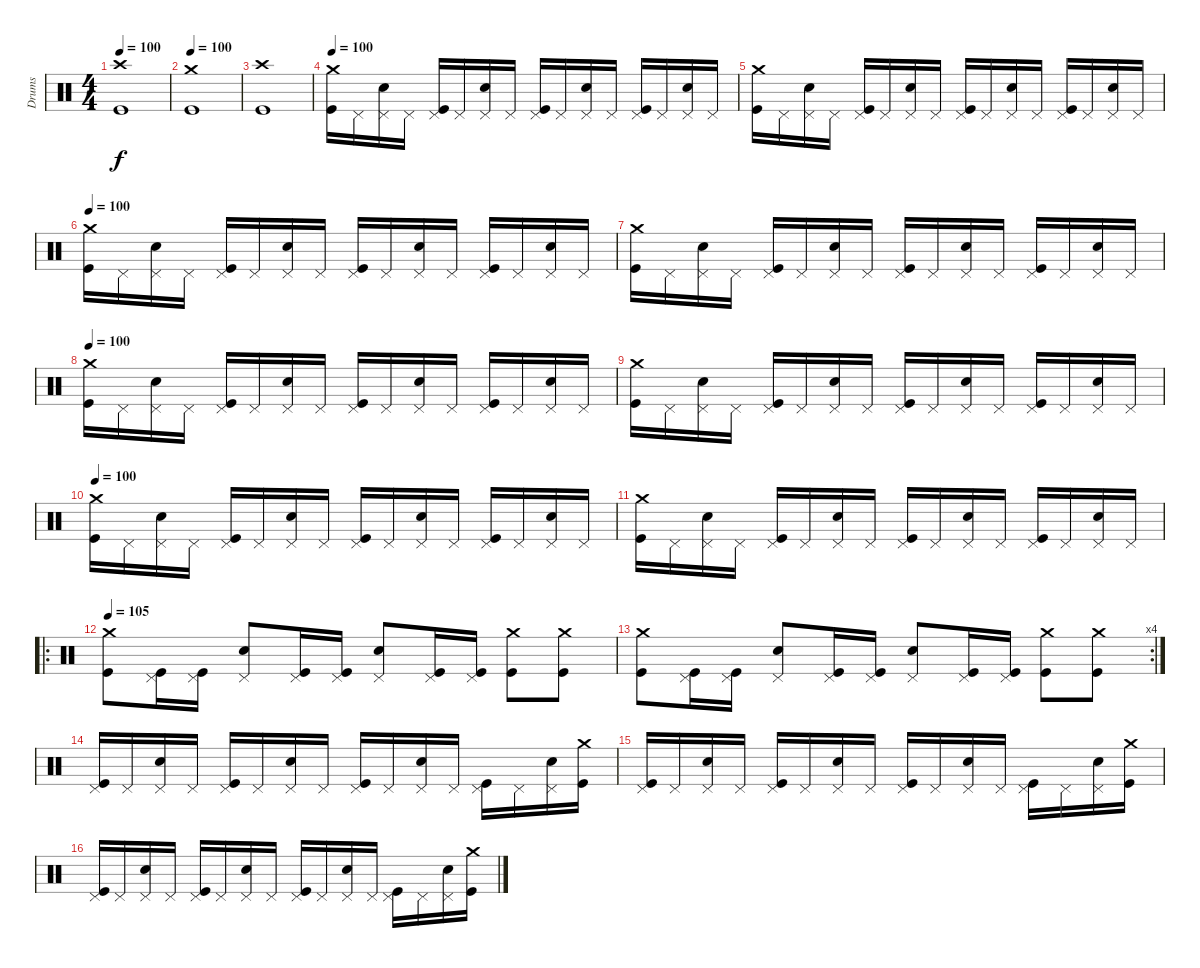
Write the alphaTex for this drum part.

\track ("Drums" "Drums") {instrument percussion}
\staff {score}
\articulation defaults
\ts (4 4)
\tempo 100
\clef neutral
\ks c
("Kick (hit)" "Crash high (hit)").1{dy f} |
\tempo 100
("Kick (hit)" "Crash medium (hit)").1 |
("Kick (hit)" "Crash high (hit)").1 |
\tempo 100
("Kick (hit)" "Crash medium (hit)").16 "Pedal Hi-Hat (hit)".16 ("Snare (hit) 2" "Pedal Hi-Hat (hit)").16 "Pedal Hi-Hat (hit)".16 ("Kick (hit)" "Pedal Hi-Hat (hit)").16 "Pedal Hi-Hat (hit)".16 ("Snare (hit) 2" "Pedal Hi-Hat (hit)").16 "Pedal Hi-Hat (hit)".16 ("Kick (hit)" "Pedal Hi-Hat (hit)").16 "Pedal Hi-Hat (hit)".16 ("Snare (hit) 2" "Pedal Hi-Hat (hit)").16 "Pedal Hi-Hat (hit)".16 ("Kick (hit)" "Pedal Hi-Hat (hit)").16 "Pedal Hi-Hat (hit)".16 ("Snare (hit) 2" "Pedal Hi-Hat (hit)").16 "Pedal Hi-Hat (hit)".16 |
("Kick (hit)" "Crash medium (hit)").16 "Pedal Hi-Hat (hit)".16 ("Snare (hit) 2" "Pedal Hi-Hat (hit)").16 "Pedal Hi-Hat (hit)".16 ("Kick (hit)" "Pedal Hi-Hat (hit)").16 "Pedal Hi-Hat (hit)".16 ("Snare (hit) 2" "Pedal Hi-Hat (hit)").16 "Pedal Hi-Hat (hit)".16 ("Kick (hit)" "Pedal Hi-Hat (hit)").16 "Pedal Hi-Hat (hit)".16 ("Snare (hit) 2" "Pedal Hi-Hat (hit)").16 "Pedal Hi-Hat (hit)".16 ("Kick (hit)" "Pedal Hi-Hat (hit)").16 "Pedal Hi-Hat (hit)".16 ("Snare (hit) 2" "Pedal Hi-Hat (hit)").16 "Pedal Hi-Hat (hit)".16 |
\tempo 100
("Kick (hit)" "Crash medium (hit)").16 "Pedal Hi-Hat (hit)".16 ("Snare (hit) 2" "Pedal Hi-Hat (hit)").16 "Pedal Hi-Hat (hit)".16 ("Kick (hit)" "Pedal Hi-Hat (hit)").16 "Pedal Hi-Hat (hit)".16 ("Snare (hit) 2" "Pedal Hi-Hat (hit)").16 "Pedal Hi-Hat (hit)".16 ("Kick (hit)" "Pedal Hi-Hat (hit)").16 "Pedal Hi-Hat (hit)".16 ("Snare (hit) 2" "Pedal Hi-Hat (hit)").16 "Pedal Hi-Hat (hit)".16 ("Kick (hit)" "Pedal Hi-Hat (hit)").16 "Pedal Hi-Hat (hit)".16 ("Snare (hit) 2" "Pedal Hi-Hat (hit)").16 "Pedal Hi-Hat (hit)".16 |
("Kick (hit)" "Crash medium (hit)").16 "Pedal Hi-Hat (hit)".16 ("Snare (hit) 2" "Pedal Hi-Hat (hit)").16 "Pedal Hi-Hat (hit)".16 ("Kick (hit)" "Pedal Hi-Hat (hit)").16 "Pedal Hi-Hat (hit)".16 ("Snare (hit) 2" "Pedal Hi-Hat (hit)").16 "Pedal Hi-Hat (hit)".16 ("Kick (hit)" "Pedal Hi-Hat (hit)").16 "Pedal Hi-Hat (hit)".16 ("Snare (hit) 2" "Pedal Hi-Hat (hit)").16 "Pedal Hi-Hat (hit)".16 ("Kick (hit)" "Pedal Hi-Hat (hit)").16 "Pedal Hi-Hat (hit)".16 ("Snare (hit) 2" "Pedal Hi-Hat (hit)").16 "Pedal Hi-Hat (hit)".16 |
\tempo 100
("Kick (hit)" "Crash medium (hit)").16 "Pedal Hi-Hat (hit)".16 ("Snare (hit) 2" "Pedal Hi-Hat (hit)").16 "Pedal Hi-Hat (hit)".16 ("Kick (hit)" "Pedal Hi-Hat (hit)").16 "Pedal Hi-Hat (hit)".16 ("Snare (hit) 2" "Pedal Hi-Hat (hit)").16 "Pedal Hi-Hat (hit)".16 ("Kick (hit)" "Pedal Hi-Hat (hit)").16 "Pedal Hi-Hat (hit)".16 ("Snare (hit) 2" "Pedal Hi-Hat (hit)").16 "Pedal Hi-Hat (hit)".16 ("Kick (hit)" "Pedal Hi-Hat (hit)").16 "Pedal Hi-Hat (hit)".16 ("Snare (hit) 2" "Pedal Hi-Hat (hit)").16 "Pedal Hi-Hat (hit)".16 |
("Kick (hit)" "Crash medium (hit)").16 "Pedal Hi-Hat (hit)".16 ("Snare (hit) 2" "Pedal Hi-Hat (hit)").16 "Pedal Hi-Hat (hit)".16 ("Kick (hit)" "Pedal Hi-Hat (hit)").16 "Pedal Hi-Hat (hit)".16 ("Snare (hit) 2" "Pedal Hi-Hat (hit)").16 "Pedal Hi-Hat (hit)".16 ("Kick (hit)" "Pedal Hi-Hat (hit)").16 "Pedal Hi-Hat (hit)".16 ("Snare (hit) 2" "Pedal Hi-Hat (hit)").16 "Pedal Hi-Hat (hit)".16 ("Kick (hit)" "Pedal Hi-Hat (hit)").16 "Pedal Hi-Hat (hit)".16 ("Snare (hit) 2" "Pedal Hi-Hat (hit)").16 "Pedal Hi-Hat (hit)".16 |
\tempo 100
("Kick (hit)" "Crash medium (hit)").16 "Pedal Hi-Hat (hit)".16 ("Snare (hit) 2" "Pedal Hi-Hat (hit)").16 "Pedal Hi-Hat (hit)".16 ("Kick (hit)" "Pedal Hi-Hat (hit)").16 "Pedal Hi-Hat (hit)".16 ("Snare (hit) 2" "Pedal Hi-Hat (hit)").16 "Pedal Hi-Hat (hit)".16 ("Kick (hit)" "Pedal Hi-Hat (hit)").16 "Pedal Hi-Hat (hit)".16 ("Snare (hit) 2" "Pedal Hi-Hat (hit)").16 "Pedal Hi-Hat (hit)".16 ("Kick (hit)" "Pedal Hi-Hat (hit)").16 "Pedal Hi-Hat (hit)".16 ("Snare (hit) 2" "Pedal Hi-Hat (hit)").16 "Pedal Hi-Hat (hit)".16 |
("Kick (hit)" "Crash medium (hit)").16 "Pedal Hi-Hat (hit)".16 ("Snare (hit) 2" "Pedal Hi-Hat (hit)").16 "Pedal Hi-Hat (hit)".16 ("Kick (hit)" "Pedal Hi-Hat (hit)").16 "Pedal Hi-Hat (hit)".16 ("Snare (hit) 2" "Pedal Hi-Hat (hit)").16 "Pedal Hi-Hat (hit)".16 ("Kick (hit)" "Pedal Hi-Hat (hit)").16 "Pedal Hi-Hat (hit)".16 ("Snare (hit) 2" "Pedal Hi-Hat (hit)").16 "Pedal Hi-Hat (hit)".16 ("Kick (hit)" "Pedal Hi-Hat (hit)").16 "Pedal Hi-Hat (hit)".16 ("Snare (hit) 2" "Pedal Hi-Hat (hit)").16 "Pedal Hi-Hat (hit)".16 |
\ro
\tempo 105
("Kick (hit)" "Crash medium (hit)").8 ("Kick (hit)" "Pedal Hi-Hat (hit)").16 ("Kick (hit)" "Pedal Hi-Hat (hit)").16 ("Snare (hit) 2" "Pedal Hi-Hat (hit)").8 ("Kick (hit)" "Pedal Hi-Hat (hit)").16 ("Kick (hit)" "Pedal Hi-Hat (hit)").16 ("Snare (hit) 2" "Pedal Hi-Hat (hit)").8 ("Kick (hit)" "Pedal Hi-Hat (hit)").16 ("Kick (hit)" "Pedal Hi-Hat (hit)").16 ("Kick (hit)" "Crash medium (hit)").8 ("Kick (hit)" "Crash medium (hit)").8 |
\rc 4
("Kick (hit)" "Crash medium (hit)").8 ("Kick (hit)" "Pedal Hi-Hat (hit)").16 ("Kick (hit)" "Pedal Hi-Hat (hit)").16 ("Snare (hit) 2" "Pedal Hi-Hat (hit)").8 ("Kick (hit)" "Pedal Hi-Hat (hit)").16 ("Kick (hit)" "Pedal Hi-Hat (hit)").16 ("Snare (hit) 2" "Pedal Hi-Hat (hit)").8 ("Kick (hit)" "Pedal Hi-Hat (hit)").16 ("Kick (hit)" "Pedal Hi-Hat (hit)").16 ("Kick (hit)" "Crash medium (hit)").8 ("Kick (hit)" "Crash medium (hit)").8 |
("Kick (hit)" "Pedal Hi-Hat (hit)").16 "Pedal Hi-Hat (hit)".16 ("Snare (hit) 2" "Pedal Hi-Hat (hit)").16 "Pedal Hi-Hat (hit)".16 ("Kick (hit)" "Pedal Hi-Hat (hit)").16 "Pedal Hi-Hat (hit)".16 ("Snare (hit) 2" "Pedal Hi-Hat (hit)").16 "Pedal Hi-Hat (hit)".16 ("Kick (hit)" "Pedal Hi-Hat (hit)").16 "Pedal Hi-Hat (hit)".16 ("Snare (hit) 2" "Pedal Hi-Hat (hit)").16 "Pedal Hi-Hat (hit)".16 ("Kick (hit)" "Pedal Hi-Hat (hit)").16 "Pedal Hi-Hat (hit)".16 ("Snare (hit) 2" "Pedal Hi-Hat (hit)").16 ("Kick (hit)" "Crash medium (hit)").16 |
("Kick (hit)" "Pedal Hi-Hat (hit)").16 "Pedal Hi-Hat (hit)".16 ("Snare (hit) 2" "Pedal Hi-Hat (hit)").16 "Pedal Hi-Hat (hit)".16 ("Kick (hit)" "Pedal Hi-Hat (hit)").16 "Pedal Hi-Hat (hit)".16 ("Snare (hit) 2" "Pedal Hi-Hat (hit)").16 "Pedal Hi-Hat (hit)".16 ("Kick (hit)" "Pedal Hi-Hat (hit)").16 "Pedal Hi-Hat (hit)".16 ("Snare (hit) 2" "Pedal Hi-Hat (hit)").16 "Pedal Hi-Hat (hit)".16 ("Kick (hit)" "Pedal Hi-Hat (hit)").16 "Pedal Hi-Hat (hit)".16 ("Snare (hit) 2" "Pedal Hi-Hat (hit)").16 ("Kick (hit)" "Crash medium (hit)").16 |
("Kick (hit)" "Pedal Hi-Hat (hit)").16 "Pedal Hi-Hat (hit)".16 ("Snare (hit) 2" "Pedal Hi-Hat (hit)").16 "Pedal Hi-Hat (hit)".16 ("Kick (hit)" "Pedal Hi-Hat (hit)").16 "Pedal Hi-Hat (hit)".16 ("Snare (hit) 2" "Pedal Hi-Hat (hit)").16 "Pedal Hi-Hat (hit)".16 ("Kick (hit)" "Pedal Hi-Hat (hit)").16 "Pedal Hi-Hat (hit)".16 ("Snare (hit) 2" "Pedal Hi-Hat (hit)").16 "Pedal Hi-Hat (hit)".16 ("Kick (hit)" "Pedal Hi-Hat (hit)").16 "Pedal Hi-Hat (hit)".16 ("Snare (hit) 2" "Pedal Hi-Hat (hit)").16 ("Kick (hit)" "Crash medium (hit)").16
